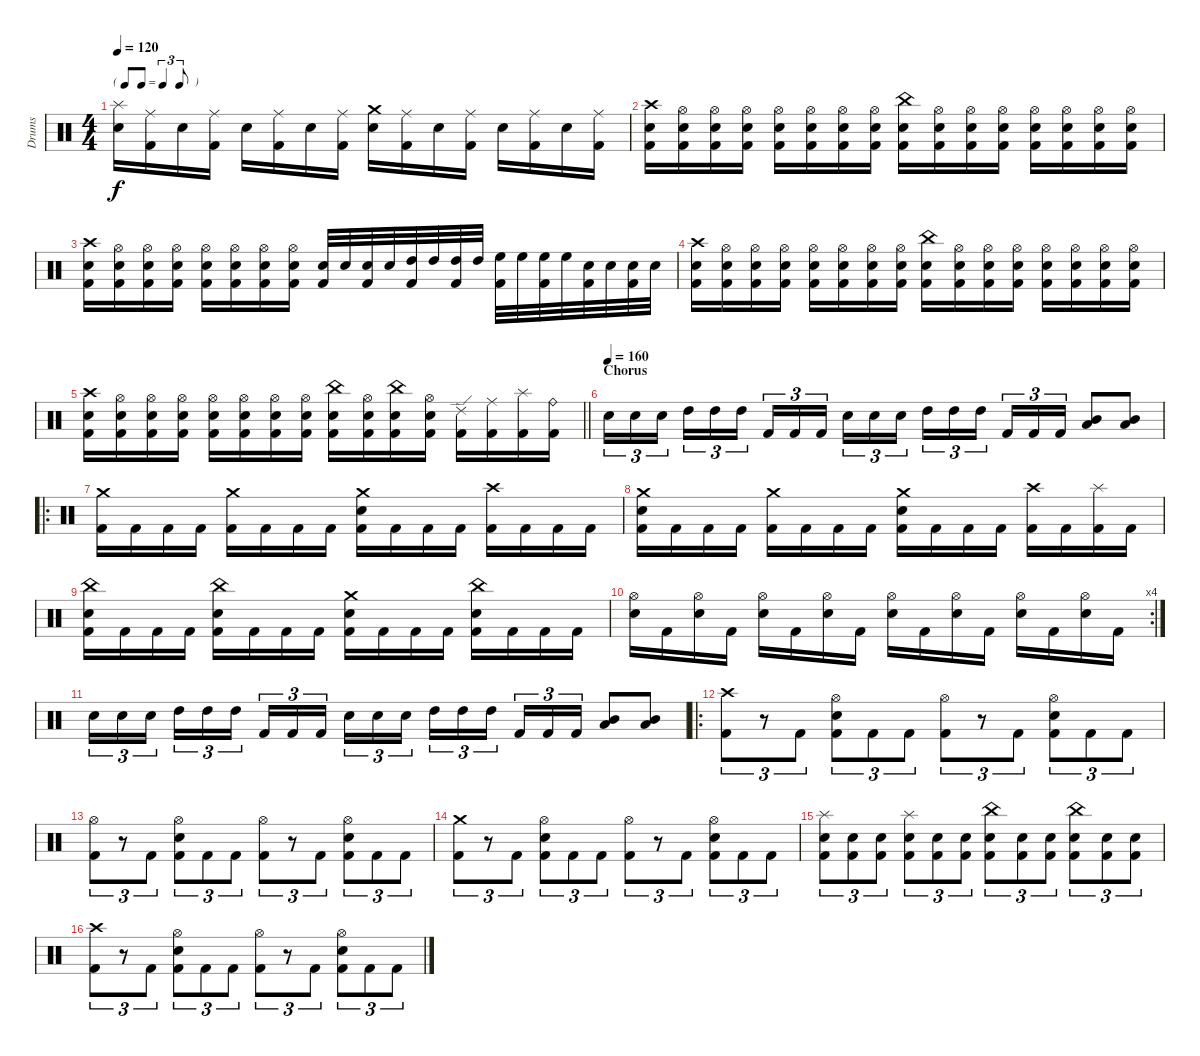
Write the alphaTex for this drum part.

\track ("Drums" "Drums") {instrument percussion}
\staff {score}
\articulation defaults
\ts (4 4)
\tf triplet8th
\tempo 120
\clef neutral
\ks c
("Splash (hit)" "Electric Snare (hit)").16{dy f} ("Ride (middle)" "Kick (hit) 2").16 "Electric Snare (hit)".16 ("Ride (middle)" "Kick (hit) 2").16 "Electric Snare (hit)".16 ("Ride (middle)" "Kick (hit) 2").16 "Electric Snare (hit)".16 ("Ride (middle)" "Kick (hit) 2").16 ("Crash medium (hit)" "Electric Snare (hit)").16 ("Ride (middle)" "Kick (hit) 2").16 "Electric Snare (hit)".16 ("Ride (middle)" "Kick (hit) 2").16 "Electric Snare (hit)".16 ("Ride (middle)" "Kick (hit) 2").16 "Electric Snare (hit)".16 ("Ride (middle)" "Kick (hit) 2").16 |
("Crash high (hit)" "Electric Snare (hit)" "Kick (hit) 2").16 ("Hi-Hat (open)" "Electric Snare (hit)" "Kick (hit) 2").16 ("Hi-Hat (open)" "Electric Snare (hit)" "Kick (hit) 2").16 ("Hi-Hat (open)" "Electric Snare (hit)" "Kick (hit) 2").16 ("Hi-Hat (open)" "Electric Snare (hit)" "Kick (hit) 2").16 ("Hi-Hat (open)" "Electric Snare (hit)" "Kick (hit) 2").16 ("Hi-Hat (open)" "Electric Snare (hit)" "Kick (hit) 2").16 ("Hi-Hat (open)" "Electric Snare (hit)" "Kick (hit) 2").16 ("China (hit)" "Electric Snare (hit)" "Kick (hit) 2").16 ("Hi-Hat (open)" "Electric Snare (hit)" "Kick (hit) 2").16 ("Hi-Hat (open)" "Electric Snare (hit)" "Kick (hit) 2").16 ("Hi-Hat (open)" "Electric Snare (hit)" "Kick (hit) 2").16 ("Hi-Hat (open)" "Electric Snare (hit)" "Kick (hit) 2").16 ("Hi-Hat (open)" "Electric Snare (hit)" "Kick (hit) 2").16 ("Hi-Hat (open)" "Electric Snare (hit)" "Kick (hit) 2").16 ("Hi-Hat (open)" "Electric Snare (hit)" "Kick (hit) 2").16 |
("Crash high (hit)" "Electric Snare (hit)" "Kick (hit) 2").16 ("Hi-Hat (open)" "Electric Snare (hit)" "Kick (hit) 2").16 ("Hi-Hat (open)" "Electric Snare (hit)" "Kick (hit) 2").16 ("Hi-Hat (open)" "Electric Snare (hit)" "Kick (hit) 2").16 ("Hi-Hat (open)" "Electric Snare (hit)" "Kick (hit) 2").16 ("Hi-Hat (open)" "Electric Snare (hit)" "Kick (hit) 2").16 ("Hi-Hat (open)" "Electric Snare (hit)" "Kick (hit) 2").16 ("Hi-Hat (open)" "Electric Snare (hit)" "Kick (hit) 2").16 ("Electric Snare (hit)" "Kick (hit) 2").32 "Electric Snare (hit)".32 ("Electric Snare (hit)" "Kick (hit) 2").32 "Electric Snare (hit)".32 ("High Tom (hit)" "Kick (hit) 2").32 "High Tom (hit)".32 ("High Tom (hit)" "Kick (hit) 2").32 "High Tom (hit)".32 ("High Floor Tom (hit)" "Kick (hit) 2").32 "High Floor Tom (hit)".32 ("High Floor Tom (hit)" "Kick (hit) 2").32 "High Floor Tom (hit)".32 ("Electric Snare (hit)" "Kick (hit) 2").32 "Electric Snare (hit)".32 ("Electric Snare (hit)" "Kick (hit) 2").32 "Electric Snare (hit)".32 |
("Crash high (hit)" "Electric Snare (hit)" "Kick (hit) 2").16 ("Hi-Hat (open)" "Electric Snare (hit)" "Kick (hit) 2").16 ("Hi-Hat (open)" "Electric Snare (hit)" "Kick (hit) 2").16 ("Hi-Hat (open)" "Electric Snare (hit)" "Kick (hit) 2").16 ("Hi-Hat (open)" "Electric Snare (hit)" "Kick (hit) 2").16 ("Hi-Hat (open)" "Electric Snare (hit)" "Kick (hit) 2").16 ("Hi-Hat (open)" "Electric Snare (hit)" "Kick (hit) 2").16 ("Hi-Hat (open)" "Electric Snare (hit)" "Kick (hit) 2").16 ("China (hit)" "Electric Snare (hit)" "Kick (hit) 2").16 ("Hi-Hat (open)" "Electric Snare (hit)" "Kick (hit) 2").16 ("Hi-Hat (open)" "Electric Snare (hit)" "Kick (hit) 2").16 ("Hi-Hat (open)" "Electric Snare (hit)" "Kick (hit) 2").16 ("Hi-Hat (open)" "Electric Snare (hit)" "Kick (hit) 2").16 ("Hi-Hat (open)" "Electric Snare (hit)" "Kick (hit) 2").16 ("Hi-Hat (open)" "Electric Snare (hit)" "Kick (hit) 2").16 ("Hi-Hat (open)" "Electric Snare (hit)" "Kick (hit) 2").16 |
\barLineRight lightlight
("Crash high (hit)" "Electric Snare (hit)" "Kick (hit) 2").16 ("Hi-Hat (open)" "Electric Snare (hit)" "Kick (hit) 2").16 ("Hi-Hat (open)" "Electric Snare (hit)" "Kick (hit) 2").16 ("Hi-Hat (open)" "Electric Snare (hit)" "Kick (hit) 2").16 ("Hi-Hat (open)" "Electric Snare (hit)" "Kick (hit) 2").16 ("Hi-Hat (open)" "Electric Snare (hit)" "Kick (hit) 2").16 ("Hi-Hat (open)" "Electric Snare (hit)" "Kick (hit) 2").16 ("Hi-Hat (open)" "Electric Snare (hit)" "Kick (hit) 2").16 ("China (hit)" "Electric Snare (hit)" "Kick (hit) 2").16 ("Hi-Hat (open)" "Electric Snare (hit)" "Kick (hit) 2").16 ("China (hit)" "Electric Snare (hit)" "Kick (hit) 2").16 ("Hi-Hat (open)" "Electric Snare (hit)" "Kick (hit) 2").16 ("Ride (edge) 2" "Kick (hit) 2").16 ("Ride (middle)" "Kick (hit) 2").16 ("Splash (hit)" "Kick (hit) 2").16 ("Ride (bell)" "Kick (hit) 2").16 |
\section ("" "Chorus")
\tempo (160)
"Electric Snare (hit)".16{tu (3 2)} "Electric Snare (hit)".16{tu (3 2)} "Electric Snare (hit)".16{tu (3 2)} "High Tom (hit)".16{tu (3 2)} "High Tom (hit)".16{tu (3 2)} "High Tom (hit)".16{tu (3 2)} "Kick (hit) 2".16{tu (3 2)} "Kick (hit) 2".16{tu (3 2)} "Kick (hit) 2".16{tu (3 2)} "Electric Snare (hit)".16{tu (3 2)} "Electric Snare (hit)".16{tu (3 2)} "Electric Snare (hit)".16{tu (3 2)} "High Tom (hit)".16{tu (3 2)} "High Tom (hit)".16{tu (3 2)} "High Tom (hit)".16{tu (3 2)} "Kick (hit) 2".16{tu (3 2)} "Kick (hit) 2".16{tu (3 2)} "Kick (hit) 2".16{tu (3 2)} ("Mid Tom (hit)" "Low Tom (hit)").8 ("Mid Tom (hit)" "Low Tom (hit)").8 |
\ro
("Crash medium (hit)" "Kick (hit) 2").16 "Kick (hit) 2".16 "Kick (hit) 2".16 "Kick (hit) 2".16 ("Crash medium (hit)" "Kick (hit) 2").16 "Kick (hit) 2".16 "Kick (hit) 2".16 "Kick (hit) 2".16 ("Crash medium (hit)" "Electric Snare (hit)" "Kick (hit) 2").16 "Kick (hit) 2".16 "Kick (hit) 2".16 "Kick (hit) 2".16 ("Crash high (hit)" "Kick (hit) 2").16 "Kick (hit) 2".16 "Kick (hit) 2".16 "Kick (hit) 2".16 |
("Crash medium (hit)" "Electric Snare (hit)" "Kick (hit) 2").16 "Kick (hit) 2".16 "Kick (hit) 2".16 "Kick (hit) 2".16 ("Crash medium (hit)" "Kick (hit) 2").16 "Kick (hit) 2".16 "Kick (hit) 2".16 "Kick (hit) 2".16 ("Crash medium (hit)" "Electric Snare (hit)" "Kick (hit) 2").16 "Kick (hit) 2".16 "Kick (hit) 2".16 "Kick (hit) 2".16 ("Crash high (hit)" "Kick (hit) 2").16 "Kick (hit) 2".16 ("Splash (hit)" "Kick (hit) 2").16 "Kick (hit) 2".16 |
("China (hit)" "Electric Snare (hit)" "Kick (hit) 2").16 "Kick (hit) 2".16 "Kick (hit) 2".16 "Kick (hit) 2".16 ("China (hit)" "Electric Snare (hit)" "Kick (hit) 2").16 "Kick (hit) 2".16 "Kick (hit) 2".16 "Kick (hit) 2".16 ("Crash medium (hit)" "Electric Snare (hit)" "Kick (hit) 2").16 "Kick (hit) 2".16 "Kick (hit) 2".16 "Kick (hit) 2".16 ("China (hit)" "Electric Snare (hit)" "Kick (hit) 2").16 "Kick (hit) 2".16 "Kick (hit) 2".16 "Kick (hit) 2".16 |
\rc 4
("Hi-Hat (open)" "Electric Snare (hit)").16 "Kick (hit) 2".16 ("Hi-Hat (open)" "Electric Snare (hit)").16 "Kick (hit) 2".16 ("Hi-Hat (open)" "Electric Snare (hit)").16 "Kick (hit) 2".16 ("Hi-Hat (open)" "Electric Snare (hit)").16 "Kick (hit) 2".16 ("Hi-Hat (open)" "Electric Snare (hit)").16 "Kick (hit) 2".16 ("Hi-Hat (open)" "Electric Snare (hit)").16 "Kick (hit) 2".16 ("Hi-Hat (open)" "Electric Snare (hit)").16 "Kick (hit) 2".16 ("Hi-Hat (open)" "Electric Snare (hit)").16 "Kick (hit) 2".16 |
"Electric Snare (hit)".16{tu (3 2)} "Electric Snare (hit)".16{tu (3 2)} "Electric Snare (hit)".16{tu (3 2)} "High Tom (hit)".16{tu (3 2)} "High Tom (hit)".16{tu (3 2)} "High Tom (hit)".16{tu (3 2)} "Kick (hit) 2".16{tu (3 2)} "Kick (hit) 2".16{tu (3 2)} "Kick (hit) 2".16{tu (3 2)} "Electric Snare (hit)".16{tu (3 2)} "Electric Snare (hit)".16{tu (3 2)} "Electric Snare (hit)".16{tu (3 2)} "High Tom (hit)".16{tu (3 2)} "High Tom (hit)".16{tu (3 2)} "High Tom (hit)".16{tu (3 2)} "Kick (hit) 2".16{tu (3 2)} "Kick (hit) 2".16{tu (3 2)} "Kick (hit) 2".16{tu (3 2)} ("Mid Tom (hit)" "Low Tom (hit)").8 ("Mid Tom (hit)" "Low Tom (hit)").8 |
\ro
("Crash high (hit)" "Kick (hit) 2").8{tu (3 2)} r.8{tu (3 2)} "Kick (hit) 2".8{tu (3 2)} ("Hi-Hat (open)" "Electric Snare (hit)" "Kick (hit) 2").8{tu (3 2)} "Kick (hit) 2".8{tu (3 2)} "Kick (hit) 2".8{tu (3 2)} ("Hi-Hat (open)" "Kick (hit) 2").8{tu (3 2)} r.8{tu (3 2)} "Kick (hit) 2".8{tu (3 2)} ("Hi-Hat (open)" "Electric Snare (hit)" "Kick (hit) 2").8{tu (3 2)} "Kick (hit) 2".8{tu (3 2)} "Kick (hit) 2".8{tu (3 2)} |
("Hi-Hat (open)" "Kick (hit) 2").8{tu (3 2)} r.8{tu (3 2)} "Kick (hit) 2".8{tu (3 2)} ("Hi-Hat (open)" "Electric Snare (hit)" "Kick (hit) 2").8{tu (3 2)} "Kick (hit) 2".8{tu (3 2)} "Kick (hit) 2".8{tu (3 2)} ("Hi-Hat (open)" "Kick (hit) 2").8{tu (3 2)} r.8{tu (3 2)} "Kick (hit) 2".8{tu (3 2)} ("Hi-Hat (open)" "Electric Snare (hit)" "Kick (hit) 2").8{tu (3 2)} "Kick (hit) 2".8{tu (3 2)} "Kick (hit) 2".8{tu (3 2)} |
("Crash medium (hit)" "Kick (hit) 2").8{tu (3 2)} r.8{tu (3 2)} "Kick (hit) 2".8{tu (3 2)} ("Hi-Hat (open)" "Electric Snare (hit)" "Kick (hit) 2").8{tu (3 2)} "Kick (hit) 2".8{tu (3 2)} "Kick (hit) 2".8{tu (3 2)} ("Hi-Hat (open)" "Kick (hit) 2").8{tu (3 2)} r.8{tu (3 2)} "Kick (hit) 2".8{tu (3 2)} ("Hi-Hat (open)" "Electric Snare (hit)" "Kick (hit) 2").8{tu (3 2)} "Kick (hit) 2".8{tu (3 2)} "Kick (hit) 2".8{tu (3 2)} |
("Splash (hit)" "Electric Snare (hit)" "Kick (hit) 2").8{tu (3 2)} ("Electric Snare (hit)" "Kick (hit) 2").8{tu (3 2)} ("Electric Snare (hit)" "Kick (hit) 2").8{tu (3 2)} ("Splash (hit)" "Electric Snare (hit)" "Kick (hit) 2").8{tu (3 2)} ("Electric Snare (hit)" "Kick (hit) 2").8{tu (3 2)} ("Electric Snare (hit)" "Kick (hit) 2").8{tu (3 2)} ("China (hit)" "Electric Snare (hit)" "Kick (hit) 2").8{tu (3 2)} ("Electric Snare (hit)" "Kick (hit) 2").8{tu (3 2)} ("Electric Snare (hit)" "Kick (hit) 2").8{tu (3 2)} ("China (hit)" "Electric Snare (hit)" "Kick (hit) 2").8{tu (3 2)} ("Electric Snare (hit)" "Kick (hit) 2").8{tu (3 2)} ("Electric Snare (hit)" "Kick (hit) 2").8{tu (3 2)} |
("Crash high (hit)" "Kick (hit) 2").8{tu (3 2)} r.8{tu (3 2)} "Kick (hit) 2".8{tu (3 2)} ("Hi-Hat (open)" "Electric Snare (hit)" "Kick (hit) 2").8{tu (3 2)} "Kick (hit) 2".8{tu (3 2)} "Kick (hit) 2".8{tu (3 2)} ("Hi-Hat (open)" "Kick (hit) 2").8{tu (3 2)} r.8{tu (3 2)} "Kick (hit) 2".8{tu (3 2)} ("Hi-Hat (open)" "Electric Snare (hit)" "Kick (hit) 2").8{tu (3 2)} "Kick (hit) 2".8{tu (3 2)} "Kick (hit) 2".8{tu (3 2)}
